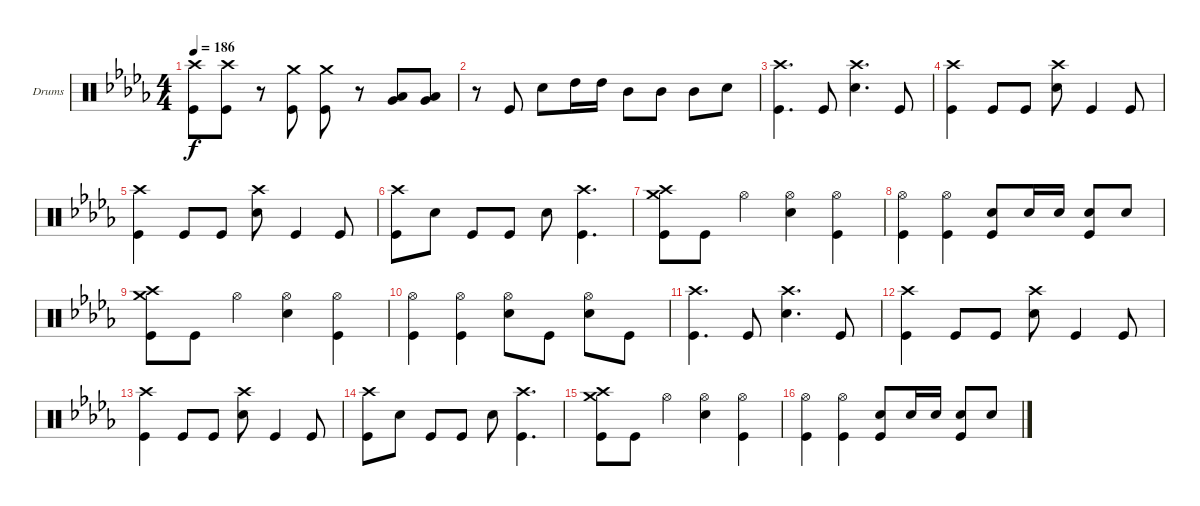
\bracketExtendMode groupsimilarinstruments
\firstSystemTrackNameOrientation horizontal
\otherSystemsTrackNameOrientation horizontal
\track ("Drumkit" "Drums") {instrument percussion}
\staff {score}
\articulation defaults
\ts (4 4)
\tempo 186
\clef neutral
\ks db
("Crash high (hit)" "Kick (hit)").8{dy f} ("Crash high (hit)" "Kick (hit)").8 r.8 ("Crash medium (hit)" "Kick (hit)").8 ("Crash medium (hit)" "Kick (hit)").8 r.8 ("Low Tom (hit)" "Very Low Tom (hit)").8 ("Low Tom (hit)" "Very Low Tom (hit)").8 |
r.8 "Kick (hit)".8 "Snare (hit) 2".8 "High Tom (hit)".16 "High Tom (hit)".16 "Mid Tom (hit)".8 "Mid Tom (hit)".8 "Mid Tom (hit)".8 "Snare (hit) 2".8 |
("Crash high (hit)" "Kick (hit)").4{d} "Kick (hit)".8 ("Crash high (hit)" "Snare (hit) 2").4{d} "Kick (hit)".8 |
("Crash high (hit)" "Kick (hit)").4 "Kick (hit)".8 "Kick (hit)".8 ("Crash high (hit)" "Snare (hit) 2").8 "Kick (hit)".4 "Kick (hit)".8 |
("Crash high (hit)" "Kick (hit)").4 "Kick (hit)".8 "Kick (hit)".8 ("Crash high (hit)" "Snare (hit) 2").8 "Kick (hit)".4 "Kick (hit)".8 |
("Crash high (hit)" "Kick (hit)").8 "Snare (hit) 2".8 "Kick (hit)".8 "Kick (hit)".8 "Snare (hit) 2".8 ("Crash high (hit)" "Kick (hit)").4{d} |
("Crash medium (hit)" "Crash high (hit)" "Kick (hit)").8 "Kick (hit)".8 "Hi-Hat (open)".4 ("Hi-Hat (open)" "Snare (hit) 2").4 ("Hi-Hat (open)" "Kick (hit)").4 |
("Hi-Hat (open)" "Kick (hit)").4 ("Hi-Hat (open)" "Kick (hit)").4 ("Snare (hit) 2" "Kick (hit)").8 "Snare (hit) 2".16 "Snare (hit) 2".16 ("Snare (hit) 2" "Kick (hit)").8 "Snare (hit) 2".8 |
("Crash medium (hit)" "Crash high (hit)" "Kick (hit)").8 "Kick (hit)".8 "Hi-Hat (open)".4 ("Hi-Hat (open)" "Snare (hit) 2").4 ("Hi-Hat (open)" "Kick (hit)").4 |
("Hi-Hat (open)" "Kick (hit)").4 ("Hi-Hat (open)" "Kick (hit)").4 ("Hi-Hat (open)" "Snare (hit) 2").8 "Kick (hit)".8 ("Hi-Hat (open)" "Snare (hit) 2").8 "Kick (hit)".8 |
("Crash high (hit)" "Kick (hit)").4{d} "Kick (hit)".8 ("Crash high (hit)" "Snare (hit) 2").4{d} "Kick (hit)".8 |
("Crash high (hit)" "Kick (hit)").4 "Kick (hit)".8 "Kick (hit)".8 ("Crash high (hit)" "Snare (hit) 2").8 "Kick (hit)".4 "Kick (hit)".8 |
("Crash high (hit)" "Kick (hit)").4 "Kick (hit)".8 "Kick (hit)".8 ("Crash high (hit)" "Snare (hit) 2").8 "Kick (hit)".4 "Kick (hit)".8 |
("Crash high (hit)" "Kick (hit)").8 "Snare (hit) 2".8 "Kick (hit)".8 "Kick (hit)".8 "Snare (hit) 2".8 ("Crash high (hit)" "Kick (hit)").4{d} |
("Crash medium (hit)" "Crash high (hit)" "Kick (hit)").8 "Kick (hit)".8 "Hi-Hat (open)".4 ("Hi-Hat (open)" "Snare (hit) 2").4 ("Hi-Hat (open)" "Kick (hit)").4 |
("Hi-Hat (open)" "Kick (hit)").4 ("Hi-Hat (open)" "Kick (hit)").4 ("Snare (hit) 2" "Kick (hit)").8 "Snare (hit) 2".16 "Snare (hit) 2".16 ("Snare (hit) 2" "Kick (hit)").8 "Snare (hit) 2".8
